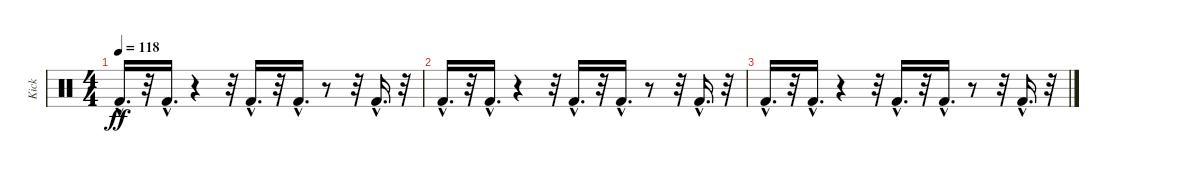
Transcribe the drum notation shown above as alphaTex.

\track ("Kick                " "Kick      ") {instrument percussion}
\staff {score}
\articulation defaults
\ts (4 4)
\tempo 118
\clef neutral
\ks c "Kick (hit) 2"{hac}.16{d dy ff}
r.32 "Kick (hit) 2"{hac}.16{d} r.4 r.32 "Kick (hit) 2"{hac}.16{d} r.32 "Kick (hit) 2"{hac}.16{d} r.8 r.32 "Kick (hit) 2"{hac}.16{d} r.32 |
"Kick (hit) 2"{hac}.16{d} r.32 "Kick (hit) 2"{hac}.16{d} r.4 r.32 "Kick (hit) 2"{hac}.16{d} r.32 "Kick (hit) 2"{hac}.16{d} r.8 r.32 "Kick (hit) 2"{hac}.16{d} r.32 |
"Kick (hit) 2"{hac}.16{d} r.32 "Kick (hit) 2"{hac}.16{d} r.4 r.32 "Kick (hit) 2"{hac}.16{d} r.32 "Kick (hit) 2"{hac}.16{d} r.8 r.32 "Kick (hit) 2"{hac}.16{d} r.32
